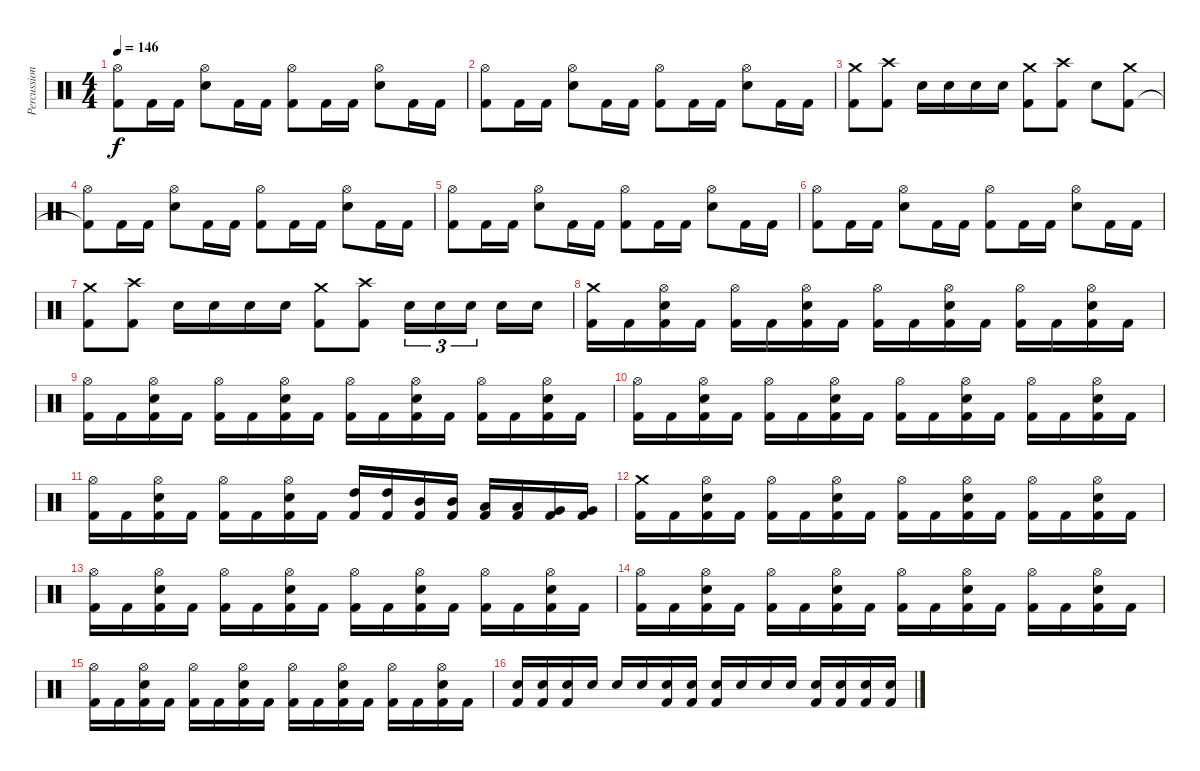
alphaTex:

\track ("Percussion" "Percussion") {instrument percussion}
\staff {score}
\articulation defaults
\ts (4 4)
\tempo 146
\clef neutral
\ks c
("Kick (hit) 2" "Hi-Hat (open)").8{dy f} "Kick (hit) 2".16 "Kick (hit) 2".16 ("Electric Snare (hit)" "Hi-Hat (open)").8 "Kick (hit) 2".16 "Kick (hit) 2".16 ("Kick (hit) 2" "Hi-Hat (open)").8 "Kick (hit) 2".16 "Kick (hit) 2".16 ("Electric Snare (hit)" "Hi-Hat (open)").8 "Kick (hit) 2".16 "Kick (hit) 2".16 |
("Kick (hit) 2" "Hi-Hat (open)").8 "Kick (hit) 2".16 "Kick (hit) 2".16 ("Electric Snare (hit)" "Hi-Hat (open)").8 "Kick (hit) 2".16 "Kick (hit) 2".16 ("Kick (hit) 2" "Hi-Hat (open)").8 "Kick (hit) 2".16 "Kick (hit) 2".16 ("Electric Snare (hit)" "Hi-Hat (open)").8 "Kick (hit) 2".16 "Kick (hit) 2".16 |
("Kick (hit) 2" "Crash medium (hit)").8 ("Kick (hit) 2" "Crash high (hit)").8 "Electric Snare (hit)".16 "Electric Snare (hit)".16 "Electric Snare (hit)".16 "Electric Snare (hit)".16 ("Kick (hit) 2" "Crash medium (hit)").8 ("Kick (hit) 2" "Crash high (hit)").8 "Electric Snare (hit)".8 ("Kick (hit) 2" "Crash medium (hit)").8 |
("Kick (hit) 2"{t} "Hi-Hat (open)").8 "Kick (hit) 2".16 "Kick (hit) 2".16 ("Electric Snare (hit)" "Hi-Hat (open)").8 "Kick (hit) 2".16 "Kick (hit) 2".16 ("Kick (hit) 2" "Hi-Hat (open)").8 "Kick (hit) 2".16 "Kick (hit) 2".16 ("Electric Snare (hit)" "Hi-Hat (open)").8 "Kick (hit) 2".16 "Kick (hit) 2".16 |
("Kick (hit) 2" "Hi-Hat (open)").8 "Kick (hit) 2".16 "Kick (hit) 2".16 ("Electric Snare (hit)" "Hi-Hat (open)").8 "Kick (hit) 2".16 "Kick (hit) 2".16 ("Kick (hit) 2" "Hi-Hat (open)").8 "Kick (hit) 2".16 "Kick (hit) 2".16 ("Electric Snare (hit)" "Hi-Hat (open)").8 "Kick (hit) 2".16 "Kick (hit) 2".16 |
("Kick (hit) 2" "Hi-Hat (open)").8 "Kick (hit) 2".16 "Kick (hit) 2".16 ("Electric Snare (hit)" "Hi-Hat (open)").8 "Kick (hit) 2".16 "Kick (hit) 2".16 ("Kick (hit) 2" "Hi-Hat (open)").8 "Kick (hit) 2".16 "Kick (hit) 2".16 ("Electric Snare (hit)" "Hi-Hat (open)").8 "Kick (hit) 2".16 "Kick (hit) 2".16 |
("Kick (hit) 2" "Crash medium (hit)").8 ("Kick (hit) 2" "Crash high (hit)").8 "Electric Snare (hit)".16 "Electric Snare (hit)".16 "Electric Snare (hit)".16 "Electric Snare (hit)".16 ("Kick (hit) 2" "Crash medium (hit)").8 ("Kick (hit) 2" "Crash high (hit)").8 "Electric Snare (hit)".16{tu (3 2)} "Electric Snare (hit)".16{tu (3 2)} "Electric Snare (hit)".16{tu (3 2) beam splitsecondary} "Electric Snare (hit)".16 "Electric Snare (hit)".16 |
("Kick (hit) 2" "Crash medium (hit)").16 "Kick (hit) 2".16 ("Kick (hit) 2" "Electric Snare (hit)" "Hi-Hat (open)").16 "Kick (hit) 2".16 ("Kick (hit) 2" "Hi-Hat (open)").16 "Kick (hit) 2".16 ("Kick (hit) 2" "Electric Snare (hit)" "Hi-Hat (open)").16 "Kick (hit) 2".16 ("Kick (hit) 2" "Hi-Hat (open)").16 "Kick (hit) 2".16 ("Kick (hit) 2" "Electric Snare (hit)" "Hi-Hat (open)").16 "Kick (hit) 2".16 ("Kick (hit) 2" "Hi-Hat (open)").16 "Kick (hit) 2".16 ("Kick (hit) 2" "Electric Snare (hit)" "Hi-Hat (open)").16 "Kick (hit) 2".16 |
("Kick (hit) 2" "Hi-Hat (open)").16 "Kick (hit) 2".16 ("Kick (hit) 2" "Electric Snare (hit)" "Hi-Hat (open)").16 "Kick (hit) 2".16 ("Kick (hit) 2" "Hi-Hat (open)").16 "Kick (hit) 2".16 ("Kick (hit) 2" "Electric Snare (hit)" "Hi-Hat (open)").16 "Kick (hit) 2".16 ("Kick (hit) 2" "Hi-Hat (open)").16 "Kick (hit) 2".16 ("Kick (hit) 2" "Electric Snare (hit)" "Hi-Hat (open)").16 "Kick (hit) 2".16 ("Kick (hit) 2" "Hi-Hat (open)").16 "Kick (hit) 2".16 ("Kick (hit) 2" "Electric Snare (hit)" "Hi-Hat (open)").16 "Kick (hit) 2".16 |
("Kick (hit) 2" "Hi-Hat (open)").16 "Kick (hit) 2".16 ("Kick (hit) 2" "Electric Snare (hit)" "Hi-Hat (open)").16 "Kick (hit) 2".16 ("Kick (hit) 2" "Hi-Hat (open)").16 "Kick (hit) 2".16 ("Kick (hit) 2" "Electric Snare (hit)" "Hi-Hat (open)").16 "Kick (hit) 2".16 ("Kick (hit) 2" "Hi-Hat (open)").16 "Kick (hit) 2".16 ("Kick (hit) 2" "Electric Snare (hit)" "Hi-Hat (open)").16 "Kick (hit) 2".16 ("Kick (hit) 2" "Hi-Hat (open)").16 "Kick (hit) 2".16 ("Kick (hit) 2" "Electric Snare (hit)" "Hi-Hat (open)").16 "Kick (hit) 2".16 |
("Kick (hit) 2" "Hi-Hat (open)").16 "Kick (hit) 2".16 ("Kick (hit) 2" "Electric Snare (hit)" "Hi-Hat (open)").16 "Kick (hit) 2".16 ("Kick (hit) 2" "Hi-Hat (open)").16 "Kick (hit) 2".16 ("Kick (hit) 2" "Electric Snare (hit)" "Hi-Hat (open)").16 "Kick (hit) 2".16 ("Kick (hit) 2" "High Tom (hit)").16 ("Kick (hit) 2" "High Tom (hit)").16 ("Kick (hit) 2" "Mid Tom (hit)").16 ("Kick (hit) 2" "Mid Tom (hit)").16 ("Kick (hit) 2" "Low Tom (hit)").16 ("Kick (hit) 2" "Low Tom (hit)").16 ("Kick (hit) 2" "Very Low Tom (hit)").16 ("Kick (hit) 2" "Very Low Tom (hit)").16 |
("Kick (hit) 2" "Crash medium (hit)").16 "Kick (hit) 2".16 ("Kick (hit) 2" "Electric Snare (hit)" "Hi-Hat (open)").16 "Kick (hit) 2".16 ("Kick (hit) 2" "Hi-Hat (open)").16 "Kick (hit) 2".16 ("Kick (hit) 2" "Electric Snare (hit)" "Hi-Hat (open)").16 "Kick (hit) 2".16 ("Kick (hit) 2" "Hi-Hat (open)").16 "Kick (hit) 2".16 ("Kick (hit) 2" "Electric Snare (hit)" "Hi-Hat (open)").16 "Kick (hit) 2".16 ("Kick (hit) 2" "Hi-Hat (open)").16 "Kick (hit) 2".16 ("Kick (hit) 2" "Electric Snare (hit)" "Hi-Hat (open)").16 "Kick (hit) 2".16 |
("Kick (hit) 2" "Hi-Hat (open)").16 "Kick (hit) 2".16 ("Kick (hit) 2" "Electric Snare (hit)" "Hi-Hat (open)").16 "Kick (hit) 2".16 ("Kick (hit) 2" "Hi-Hat (open)").16 "Kick (hit) 2".16 ("Kick (hit) 2" "Electric Snare (hit)" "Hi-Hat (open)").16 "Kick (hit) 2".16 ("Kick (hit) 2" "Hi-Hat (open)").16 "Kick (hit) 2".16 ("Kick (hit) 2" "Electric Snare (hit)" "Hi-Hat (open)").16 "Kick (hit) 2".16 ("Kick (hit) 2" "Hi-Hat (open)").16 "Kick (hit) 2".16 ("Kick (hit) 2" "Electric Snare (hit)" "Hi-Hat (open)").16 "Kick (hit) 2".16 |
("Kick (hit) 2" "Hi-Hat (open)").16 "Kick (hit) 2".16 ("Kick (hit) 2" "Electric Snare (hit)" "Hi-Hat (open)").16 "Kick (hit) 2".16 ("Kick (hit) 2" "Hi-Hat (open)").16 "Kick (hit) 2".16 ("Kick (hit) 2" "Electric Snare (hit)" "Hi-Hat (open)").16 "Kick (hit) 2".16 ("Kick (hit) 2" "Hi-Hat (open)").16 "Kick (hit) 2".16 ("Kick (hit) 2" "Electric Snare (hit)" "Hi-Hat (open)").16 "Kick (hit) 2".16 ("Kick (hit) 2" "Hi-Hat (open)").16 "Kick (hit) 2".16 ("Kick (hit) 2" "Electric Snare (hit)" "Hi-Hat (open)").16 "Kick (hit) 2".16 |
("Kick (hit) 2" "Hi-Hat (open)").16 "Kick (hit) 2".16 ("Kick (hit) 2" "Electric Snare (hit)" "Hi-Hat (open)").16 "Kick (hit) 2".16 ("Kick (hit) 2" "Hi-Hat (open)").16 "Kick (hit) 2".16 ("Kick (hit) 2" "Electric Snare (hit)" "Hi-Hat (open)").16 "Kick (hit) 2".16 ("Kick (hit) 2" "Hi-Hat (open)").16 "Kick (hit) 2".16 ("Kick (hit) 2" "Electric Snare (hit)" "Hi-Hat (open)").16 "Kick (hit) 2".16 ("Kick (hit) 2" "Hi-Hat (open)").16 "Kick (hit) 2".16 ("Kick (hit) 2" "Electric Snare (hit)" "Hi-Hat (open)").16 "Kick (hit) 2".16 |
("Kick (hit) 2" "Snare (hit) 2").16 ("Kick (hit) 2" "Snare (hit) 2").16 ("Kick (hit) 2" "Snare (hit) 2").16 "Snare (hit) 2".16 "Snare (hit) 2".16 "Snare (hit) 2".16 ("Kick (hit) 2" "Snare (hit) 2").16 ("Kick (hit) 2" "Snare (hit) 2").16 ("Kick (hit) 2" "Snare (hit) 2").16 "Snare (hit) 2".16 "Snare (hit) 2".16 "Snare (hit) 2".16 ("Kick (hit) 2" "Snare (hit) 2").16 ("Kick (hit) 2" "Snare (hit) 2").16 ("Kick (hit) 2" "Snare (hit) 2").16 ("Kick (hit) 2" "Snare (hit) 2").16
